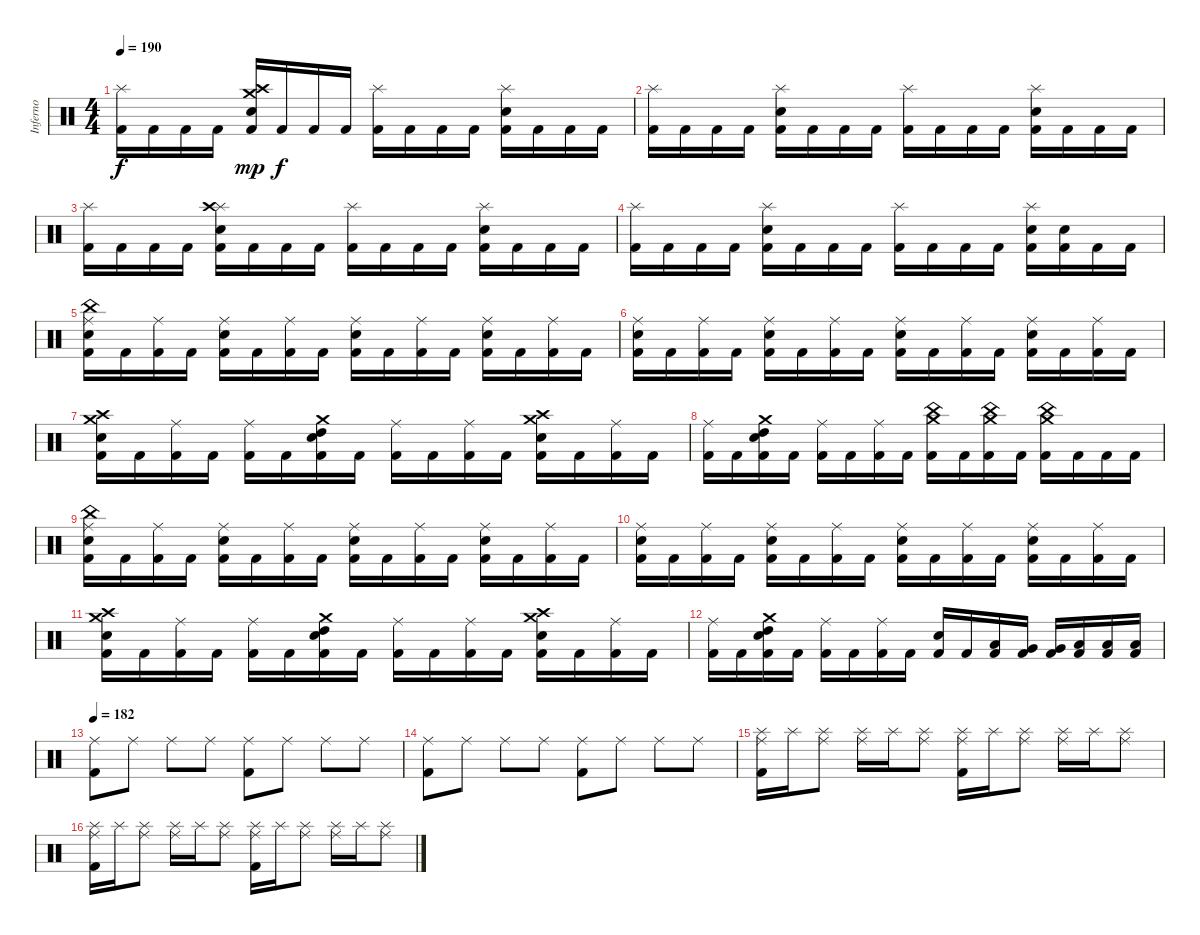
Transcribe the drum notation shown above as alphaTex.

\track ("Inferno" "Inferno") {instrument percussion}
\staff {score}
\articulation defaults
\ts (4 4)
\tempo 190
\clef neutral
\ks c
("Splash (hit)" "Kick (hit) 2").16{dy f} "Kick (hit) 2".16 "Kick (hit) 2".16 "Kick (hit) 2".16 ("Crash high (hit)" "Crash medium (hit)" "Snare (hit) 2" "Kick (hit) 2").16{dy mp} "Kick (hit) 2".16{dy f} "Kick (hit) 2".16 "Kick (hit) 2".16 ("Splash (hit)" "Kick (hit) 2").16 "Kick (hit) 2".16 "Kick (hit) 2".16 "Kick (hit) 2".16 ("Splash (hit)" "Snare (hit) 2" "Kick (hit) 2").16 "Kick (hit) 2".16 "Kick (hit) 2".16 "Kick (hit) 2".16 |
("Splash (hit)" "Kick (hit) 2").16 "Kick (hit) 2".16 "Kick (hit) 2".16 "Kick (hit) 2".16 ("Splash (hit)" "Snare (hit) 2" "Kick (hit) 2").16 "Kick (hit) 2".16 "Kick (hit) 2".16 "Kick (hit) 2".16 ("Splash (hit)" "Kick (hit) 2").16 "Kick (hit) 2".16 "Kick (hit) 2".16 "Kick (hit) 2".16 ("Splash (hit)" "Snare (hit) 2" "Kick (hit) 2").16 "Kick (hit) 2".16 "Kick (hit) 2".16 "Kick (hit) 2".16 |
("Splash (hit)" "Kick (hit) 2").16 "Kick (hit) 2".16 "Kick (hit) 2".16 "Kick (hit) 2".16 ("Splash (hit)" "Crash high (hit)" "Snare (hit) 2" "Kick (hit) 2").16 "Kick (hit) 2".16 "Kick (hit) 2".16 "Kick (hit) 2".16 ("Splash (hit)" "Kick (hit) 2").16 "Kick (hit) 2".16 "Kick (hit) 2".16 "Kick (hit) 2".16 ("Splash (hit)" "Snare (hit) 2" "Kick (hit) 2").16 "Kick (hit) 2".16 "Kick (hit) 2".16 "Kick (hit) 2".16 |
("Splash (hit)" "Kick (hit) 2").16 "Kick (hit) 2".16 "Kick (hit) 2".16 "Kick (hit) 2".16 ("Splash (hit)" "Snare (hit) 2" "Kick (hit) 2").16 "Kick (hit) 2".16 "Kick (hit) 2".16 "Kick (hit) 2".16 ("Splash (hit)" "Kick (hit) 2").16 "Kick (hit) 2".16 "Kick (hit) 2".16 "Kick (hit) 2".16 ("Splash (hit)" "Snare (hit) 2" "Kick (hit) 2").16 ("Snare (hit) 2" "Kick (hit) 2").16 "Kick (hit) 2".16 "Kick (hit) 2".16 |
\section ("" "")
("China (hit)" "Ride (middle)" "Snare (hit) 2" "Kick (hit) 2").16 "Kick (hit) 2".16 ("Ride (middle)" "Kick (hit) 2").16 "Kick (hit) 2".16 ("Ride (middle)" "Snare (hit) 2" "Kick (hit) 2").16 "Kick (hit) 2".16 ("Ride (middle)" "Kick (hit) 2").16 "Kick (hit) 2".16 ("Ride (middle)" "Snare (hit) 2" "Kick (hit) 2").16 "Kick (hit) 2".16 ("Ride (middle)" "Kick (hit) 2").16 "Kick (hit) 2".16 ("Ride (middle)" "Snare (hit) 2" "Kick (hit) 2").16 "Kick (hit) 2".16 ("Ride (middle)" "Kick (hit) 2").16 "Kick (hit) 2".16 |
("Ride (middle)" "Snare (hit) 2" "Kick (hit) 2").16 "Kick (hit) 2".16 ("Ride (middle)" "Kick (hit) 2").16 "Kick (hit) 2".16 ("Ride (middle)" "Snare (hit) 2" "Kick (hit) 2").16 "Kick (hit) 2".16 ("Ride (middle)" "Kick (hit) 2").16 "Kick (hit) 2".16 ("Ride (middle)" "Snare (hit) 2" "Kick (hit) 2").16 "Kick (hit) 2".16 ("Ride (middle)" "Kick (hit) 2").16 "Kick (hit) 2".16 ("Ride (middle)" "Snare (hit) 2" "Kick (hit) 2").16 "Kick (hit) 2".16 ("Ride (middle)" "Kick (hit) 2").16 "Kick (hit) 2".16 |
("Crash medium (hit)" "Crash high (hit)" "Snare (hit) 2" "Kick (hit) 2").16 "Kick (hit) 2".16 ("Ride (middle)" "Kick (hit) 2").16 "Kick (hit) 2".16 ("Ride (middle)" "Kick (hit) 2").16 "Kick (hit) 2".16 ("Crash medium (hit)" "High Tom (hit)" "Snare (hit) 2" "Kick (hit) 2").16 "Kick (hit) 2".16 ("Ride (middle)" "Kick (hit) 2").16 "Kick (hit) 2".16 ("Ride (middle)" "Kick (hit) 2").16 "Kick (hit) 2".16 ("Crash medium (hit)" "Crash high (hit)" "Snare (hit) 2" "Kick (hit) 2").16 "Kick (hit) 2".16 ("Ride (middle)" "Kick (hit) 2").16 "Kick (hit) 2".16 |
("Ride (middle)" "Kick (hit) 2").16 "Kick (hit) 2".16 ("Crash medium (hit)" "High Tom (hit)" "Snare (hit) 2" "Kick (hit) 2").16 "Kick (hit) 2".16 ("Ride (middle)" "Kick (hit) 2").16 "Kick (hit) 2".16 ("Ride (middle)" "Kick (hit) 2").16 "Kick (hit) 2".16 ("China (hit)" "Crash medium (hit)" "Kick (hit) 2").16 "Kick (hit) 2".16 ("China (hit)" "Crash medium (hit)" "Kick (hit) 2").16 "Kick (hit) 2".16 ("China (hit)" "Crash medium (hit)" "Kick (hit) 2").16 "Kick (hit) 2".16 "Kick (hit) 2".16 "Kick (hit) 2".16 |
("China (hit)" "Ride (middle)" "Snare (hit) 2" "Kick (hit) 2").16 "Kick (hit) 2".16 ("Ride (middle)" "Kick (hit) 2").16 "Kick (hit) 2".16 ("Ride (middle)" "Snare (hit) 2" "Kick (hit) 2").16 "Kick (hit) 2".16 ("Ride (middle)" "Kick (hit) 2").16 "Kick (hit) 2".16 ("Ride (middle)" "Snare (hit) 2" "Kick (hit) 2").16 "Kick (hit) 2".16 ("Ride (middle)" "Kick (hit) 2").16 "Kick (hit) 2".16 ("Ride (middle)" "Snare (hit) 2" "Kick (hit) 2").16 "Kick (hit) 2".16 ("Ride (middle)" "Kick (hit) 2").16 "Kick (hit) 2".16 |
("Ride (middle)" "Snare (hit) 2" "Kick (hit) 2").16 "Kick (hit) 2".16 ("Ride (middle)" "Kick (hit) 2").16 "Kick (hit) 2".16 ("Ride (middle)" "Snare (hit) 2" "Kick (hit) 2").16 "Kick (hit) 2".16 ("Ride (middle)" "Kick (hit) 2").16 "Kick (hit) 2".16 ("Ride (middle)" "Snare (hit) 2" "Kick (hit) 2").16 "Kick (hit) 2".16 ("Ride (middle)" "Kick (hit) 2").16 "Kick (hit) 2".16 ("Ride (middle)" "Snare (hit) 2" "Kick (hit) 2").16 "Kick (hit) 2".16 ("Ride (middle)" "Kick (hit) 2").16 "Kick (hit) 2".16 |
("Crash medium (hit)" "Crash high (hit)" "Snare (hit) 2" "Kick (hit) 2").16 "Kick (hit) 2".16 ("Ride (middle)" "Kick (hit) 2").16 "Kick (hit) 2".16 ("Ride (middle)" "Kick (hit) 2").16 "Kick (hit) 2".16 ("Crash medium (hit)" "High Tom (hit)" "Snare (hit) 2" "Kick (hit) 2").16 "Kick (hit) 2".16 ("Ride (middle)" "Kick (hit) 2").16 "Kick (hit) 2".16 ("Ride (middle)" "Kick (hit) 2").16 "Kick (hit) 2".16 ("Crash medium (hit)" "Crash high (hit)" "Snare (hit) 2" "Kick (hit) 2").16 "Kick (hit) 2".16 ("Ride (middle)" "Kick (hit) 2").16 "Kick (hit) 2".16 |
("Ride (middle)" "Kick (hit) 2").16 "Kick (hit) 2".16 ("Crash medium (hit)" "High Tom (hit)" "Snare (hit) 2" "Kick (hit) 2").16 "Kick (hit) 2".16 ("Ride (middle)" "Kick (hit) 2").16 "Kick (hit) 2".16 ("Ride (middle)" "Kick (hit) 2").16 "Kick (hit) 2".16 ("Snare (hit) 2" "Kick (hit) 2").16 "Kick (hit) 2".16 ("Low Tom (hit)" "Kick (hit) 2").16 ("Very Low Tom (hit)" "Kick (hit) 2").16 ("Very Low Tom (hit)" "Kick (hit) 2").16 ("Low Floor Tom (hit)" "Kick (hit) 2").16 ("Low Floor Tom (hit)" "Kick (hit) 2").16 ("Low Floor Tom (hit)" "Kick (hit) 2").16 |
\section ("" "")
\tempo 183
\tempo 182
("Ride (middle)" "Kick (hit) 2").8 "Ride (middle)".8 "Ride (middle)".8 "Ride (middle)".8 ("Ride (middle)" "Kick (hit) 2").8 "Ride (middle)".8 "Ride (middle)".8 "Ride (middle)".8 |
("Ride (middle)" "Kick (hit) 2").8 "Ride (middle)".8 "Ride (middle)".8 "Ride (middle)".8 ("Ride (middle)" "Kick (hit) 2").8 "Ride (middle)".8 "Ride (middle)".8 "Ride (middle)".8 |
("Splash (hit)" "Ride (middle)" "Kick (hit) 2").16 "Splash (hit)".16 ("Splash (hit)" "Ride (middle)").8 ("Splash (hit)" "Ride (middle)").16 "Splash (hit)".16 ("Splash (hit)" "Ride (middle)").8 ("Splash (hit)" "Ride (middle)" "Kick (hit) 2").16 "Splash (hit)".16 ("Splash (hit)" "Ride (middle)").8 ("Splash (hit)" "Ride (middle)").16 "Splash (hit)".16 ("Splash (hit)" "Ride (middle)").8 |
("Splash (hit)" "Ride (middle)" "Kick (hit) 2").16 "Splash (hit)".16 ("Splash (hit)" "Ride (middle)").8 ("Splash (hit)" "Ride (middle)").16 "Splash (hit)".16 ("Splash (hit)" "Ride (middle)").8 ("Splash (hit)" "Ride (middle)" "Kick (hit) 2").16 "Splash (hit)".16 ("Splash (hit)" "Ride (middle)").8 ("Splash (hit)" "Ride (middle)").16 "Splash (hit)".16 ("Splash (hit)" "Ride (middle)").8
